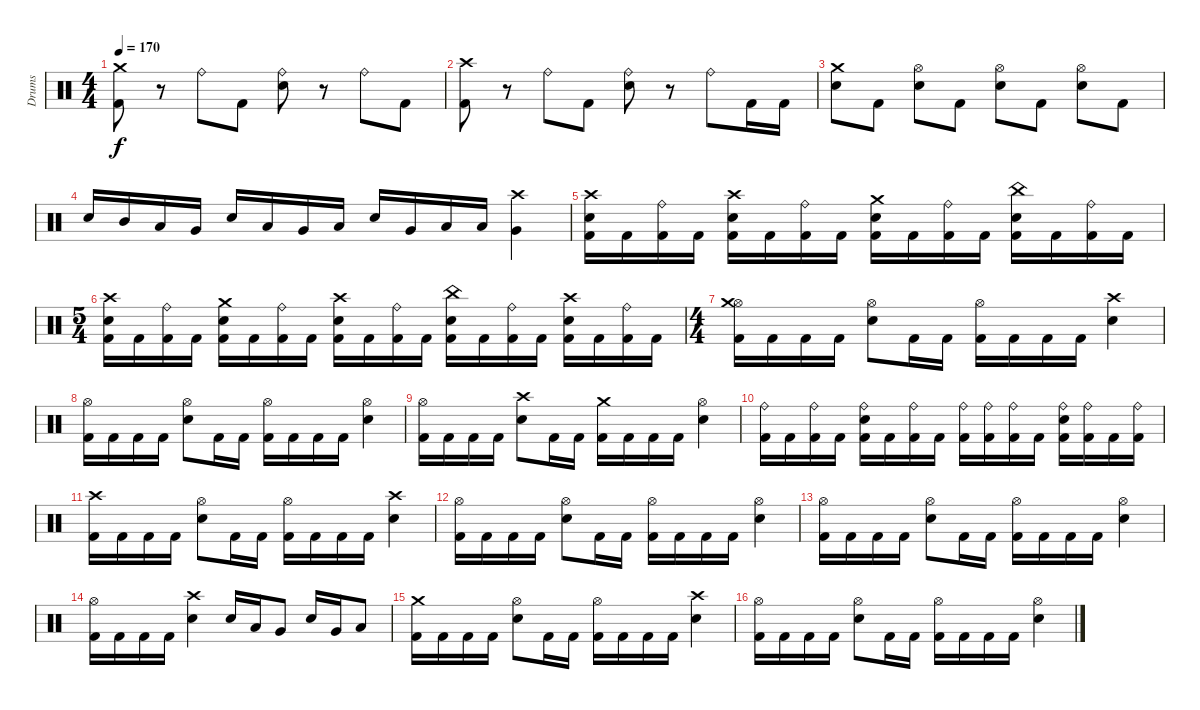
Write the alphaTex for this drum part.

\track ("Drums" "Drums") {instrument percussion}
\staff {score}
\articulation defaults
\ts (4 4)
\tempo 170
\clef neutral
\ks c
("Kick (hit) 2" "Crash medium (hit)").8{dy f} r.8 "Ride (bell)".8 "Kick (hit) 2".8 ("Snare (hit) 2" "Ride (bell)").8 r.8 "Ride (bell)".8 "Kick (hit) 2".8 |
("Kick (hit) 2" "Crash high (hit)").8 r.8 "Ride (bell)".8 "Kick (hit) 2".8 ("Snare (hit) 2" "Ride (bell)").8 r.8 "Ride (bell)".8 "Kick (hit) 2".16 "Kick (hit) 2".16 |
("Snare (hit) 2" "Crash medium (hit)").8 "Kick (hit) 2".8 ("Snare (hit) 2" "Hi-Hat (open)").8 "Kick (hit) 2".8 ("Snare (hit) 2" "Hi-Hat (open)").8 "Kick (hit) 2".8 ("Snare (hit) 2" "Hi-Hat (open)").8 "Kick (hit) 2".8 |
"Snare (hit) 2".16 "Mid Tom (hit)".16 "Low Tom (hit)".16 "Very Low Tom (hit)".16 "Snare (hit) 2".16 "Low Tom (hit)".16 "Very Low Tom (hit)".16 "Low Floor Tom (hit)".16 "Snare (hit) 2".16 "Very Low Tom (hit)".16 "Low Floor Tom (hit)".16 "Low Floor Tom (hit)".16 ("Very Low Tom (hit)" "Crash high (hit)").4 |
("Kick (hit) 2" "Snare (hit) 2" "Crash high (hit)").16 "Kick (hit) 2".16 ("Kick (hit) 2" "Ride (bell)").16 "Kick (hit) 2".16 ("Kick (hit) 2" "Snare (hit) 2" "Crash high (hit)").16 "Kick (hit) 2".16 ("Kick (hit) 2" "Ride (bell)").16 "Kick (hit) 2".16 ("Kick (hit) 2" "Snare (hit) 2" "Crash medium (hit)").16 "Kick (hit) 2".16 ("Kick (hit) 2" "Ride (bell)").16 "Kick (hit) 2".16 ("Kick (hit) 2" "Snare (hit) 2" "China (hit)").16 "Kick (hit) 2".16 ("Kick (hit) 2" "Ride (bell)").16 "Kick (hit) 2".16 |
\ts (5 4)
("Snare (hit) 2" "Kick (hit) 2" "Crash high (hit)").16 "Kick (hit) 2".16 ("Kick (hit) 2" "Ride (bell)").16 "Kick (hit) 2".16 ("Snare (hit) 2" "Kick (hit) 2" "Crash medium (hit)").16 "Kick (hit) 2".16 ("Kick (hit) 2" "Ride (bell)").16 "Kick (hit) 2".16 ("Snare (hit) 2" "Kick (hit) 2" "Crash high (hit)").16 "Kick (hit) 2".16 ("Kick (hit) 2" "Ride (bell)").16 "Kick (hit) 2".16 ("Snare (hit) 2" "Kick (hit) 2" "China (hit)").16 "Kick (hit) 2".16 ("Kick (hit) 2" "Ride (bell)").16 "Kick (hit) 2".16 ("Snare (hit) 2" "Kick (hit) 2" "Crash high (hit)").16 "Kick (hit) 2".16 ("Kick (hit) 2" "Ride (bell)").16 "Kick (hit) 2".16 |
\ts (4 4)
("Kick (hit) 2" "Hi-Hat (open)" "Crash medium (hit)").16 "Kick (hit) 2".16 "Kick (hit) 2".16 "Kick (hit) 2".16 ("Snare (hit) 2" "Hi-Hat (open)").8 "Kick (hit) 2".16 "Kick (hit) 2".16 ("Kick (hit) 2" "Hi-Hat (open)").16 "Kick (hit) 2".16 "Kick (hit) 2".16 "Kick (hit) 2".16 ("Snare (hit) 2" "Crash high (hit)").4 |
("Kick (hit) 2" "Hi-Hat (open)").16 "Kick (hit) 2".16 "Kick (hit) 2".16 "Kick (hit) 2".16 ("Snare (hit) 2" "Hi-Hat (open)").8 "Kick (hit) 2".16 "Kick (hit) 2".16 ("Kick (hit) 2" "Hi-Hat (open)").16 "Kick (hit) 2".16 "Kick (hit) 2".16 "Kick (hit) 2".16 ("Snare (hit) 2" "Hi-Hat (open)").4 |
("Kick (hit) 2" "Hi-Hat (open)").16 "Kick (hit) 2".16 "Kick (hit) 2".16 "Kick (hit) 2".16 ("Snare (hit) 2" "Crash high (hit)").8 "Kick (hit) 2".16 "Kick (hit) 2".16 ("Kick (hit) 2" "Crash medium (hit)").16 "Kick (hit) 2".16 "Kick (hit) 2".16 "Kick (hit) 2".16 ("Snare (hit) 2" "Hi-Hat (open)").4 |
("Kick (hit) 2" "Ride (bell)").16 "Kick (hit) 2".16 ("Kick (hit) 2" "Ride (bell)").16 "Kick (hit) 2".16 ("Kick (hit) 2" "Ride (bell)" "Snare (hit) 2").16 "Kick (hit) 2".16 ("Kick (hit) 2" "Ride (bell)").16 "Kick (hit) 2".16 ("Kick (hit) 2" "Ride (bell)").16 ("Kick (hit) 2" "Ride (bell)").16 ("Kick (hit) 2" "Ride (bell)").16 "Kick (hit) 2".16 ("Kick (hit) 2" "Ride (bell)" "Snare (hit) 2").16 ("Kick (hit) 2" "Ride (bell)").16 "Kick (hit) 2".16 ("Kick (hit) 2" "Ride (bell)").16 |
("Kick (hit) 2" "Crash high (hit)").16 "Kick (hit) 2".16 "Kick (hit) 2".16 "Kick (hit) 2".16 ("Snare (hit) 2" "Hi-Hat (open)").8 "Kick (hit) 2".16 "Kick (hit) 2".16 ("Kick (hit) 2" "Hi-Hat (open)").16 "Kick (hit) 2".16 "Kick (hit) 2".16 "Kick (hit) 2".16 ("Snare (hit) 2" "Crash high (hit)").4 |
("Kick (hit) 2" "Hi-Hat (open)").16 "Kick (hit) 2".16 "Kick (hit) 2".16 "Kick (hit) 2".16 ("Snare (hit) 2" "Hi-Hat (open)").8 "Kick (hit) 2".16 "Kick (hit) 2".16 ("Kick (hit) 2" "Hi-Hat (open)").16 "Kick (hit) 2".16 "Kick (hit) 2".16 "Kick (hit) 2".16 ("Snare (hit) 2" "Hi-Hat (open)").4 |
("Kick (hit) 2" "Hi-Hat (open)").16 "Kick (hit) 2".16 "Kick (hit) 2".16 "Kick (hit) 2".16 ("Snare (hit) 2" "Hi-Hat (open)").8 "Kick (hit) 2".16 "Kick (hit) 2".16 ("Kick (hit) 2" "Hi-Hat (open)").16 "Kick (hit) 2".16 "Kick (hit) 2".16 "Kick (hit) 2".16 ("Snare (hit) 2" "Hi-Hat (open)").4 |
("Kick (hit) 2" "Hi-Hat (open)").16 "Kick (hit) 2".16 "Kick (hit) 2".16 "Kick (hit) 2".16 ("Snare (hit) 2" "Crash high (hit)").4 "Snare (hit) 2".16 "Low Tom (hit)".16 "Very Low Tom (hit)".8 "Snare (hit) 2".16 "Very Low Tom (hit)".16 "Low Floor Tom (hit)".8 |
("Kick (hit) 2" "Crash medium (hit)").16 "Kick (hit) 2".16 "Kick (hit) 2".16 "Kick (hit) 2".16 ("Snare (hit) 2" "Hi-Hat (open)").8 "Kick (hit) 2".16 "Kick (hit) 2".16 ("Kick (hit) 2" "Hi-Hat (open)").16 "Kick (hit) 2".16 "Kick (hit) 2".16 "Kick (hit) 2".16 ("Snare (hit) 2" "Crash high (hit)").4 |
("Kick (hit) 2" "Hi-Hat (open)").16 "Kick (hit) 2".16 "Kick (hit) 2".16 "Kick (hit) 2".16 ("Snare (hit) 2" "Hi-Hat (open)").8 "Kick (hit) 2".16 "Kick (hit) 2".16 ("Kick (hit) 2" "Hi-Hat (open)").16 "Kick (hit) 2".16 "Kick (hit) 2".16 "Kick (hit) 2".16 ("Snare (hit) 2" "Hi-Hat (open)").4
